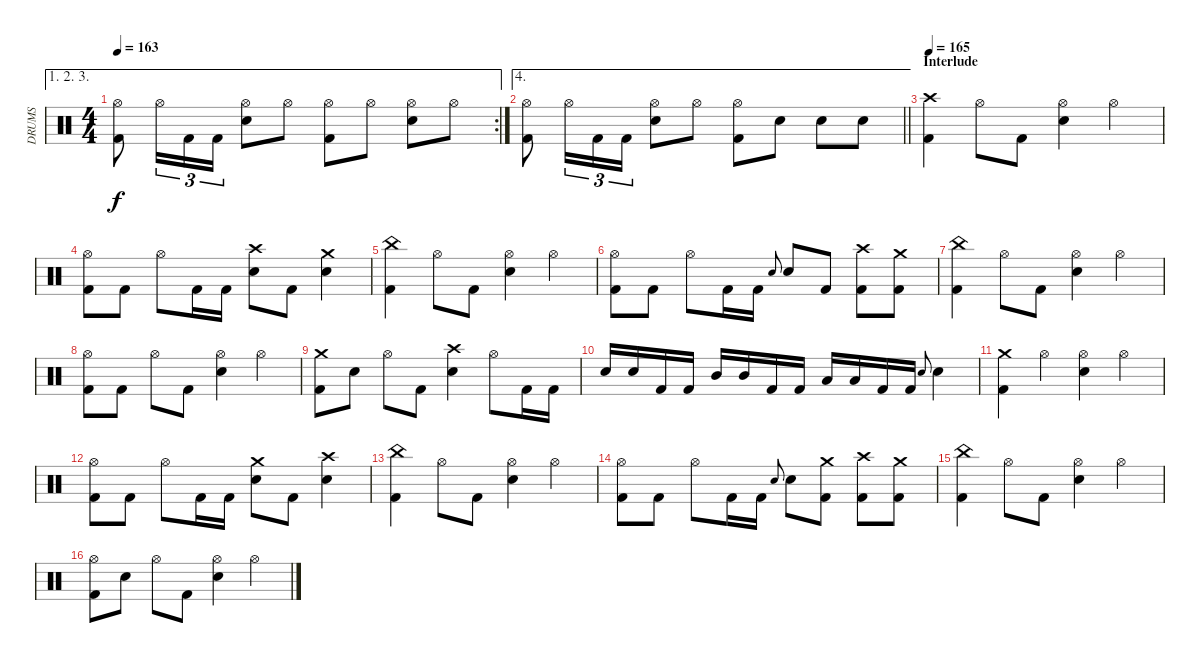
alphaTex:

\track ("DRUMS" "DRUMS") {instrument percussion}
\staff {score}
\articulation defaults
\ae (1 2 3)
\rc 2
\ts (4 4)
\tempo 163
\clef neutral
\ks c
("Hi-Hat (open)" "Kick (hit) 2").8{dy f} "Hi-Hat (open)".16{tu (3 2)} "Kick (hit) 2".16{tu (3 2)} "Kick (hit) 2".16{tu (3 2)} ("Hi-Hat (open)" "Snare (hit) 2").8 "Hi-Hat (open)".8 ("Hi-Hat (open)" "Kick (hit) 2").8 "Hi-Hat (open)".8 ("Hi-Hat (open)" "Snare (hit) 2").8 "Hi-Hat (open)".8 |
\ae 4
\barLineRight lightlight
("Hi-Hat (open)" "Kick (hit) 2").8 "Hi-Hat (open)".16{tu (3 2)} "Kick (hit) 2".16{tu (3 2)} "Kick (hit) 2".16{tu (3 2)} ("Hi-Hat (open)" "Snare (hit) 2").8 "Hi-Hat (open)".8 ("Hi-Hat (open)" "Kick (hit) 2").8 "Snare (hit) 2".8 "Snare (hit) 2".8 "Snare (hit) 2".8 |
\section ("" "Interlude")
\tempo 165
("Crash high (hit)" "Kick (hit) 2").4 "Hi-Hat (open)".8 "Kick (hit) 2".8 ("Hi-Hat (open)" "Snare (hit) 2").4 "Hi-Hat (open)".4 |
("Hi-Hat (open)" "Kick (hit) 2").8 "Kick (hit) 2".8 "Hi-Hat (open)".8 "Kick (hit) 2".16 "Kick (hit) 2".16 ("Crash high (hit)" "Snare (hit) 2").8 "Kick (hit) 2".8 ("Crash medium (hit)" "Snare (hit) 2").4 |
("China (hit)" "Kick (hit) 2").4 "Hi-Hat (open)".8 "Kick (hit) 2".8 ("Hi-Hat (open)" "Snare (hit) 2").4 "Hi-Hat (open)".4 |
("Hi-Hat (open)" "Kick (hit) 2").8 "Kick (hit) 2".8 "Hi-Hat (open)".8 "Kick (hit) 2".16 "Kick (hit) 2".16 "Snare (hit) 2".8{gr onbeat} "Snare (hit) 2".8 "Kick (hit) 2".8 ("Crash high (hit)" "Kick (hit) 2").8 ("Crash medium (hit)" "Kick (hit) 2").8 |
("China (hit)" "Kick (hit) 2").4 "Hi-Hat (open)".8 "Kick (hit) 2".8 ("Hi-Hat (open)" "Snare (hit) 2").4 "Hi-Hat (open)".4 |
("Hi-Hat (open)" "Kick (hit) 2").8 "Kick (hit) 2".8 "Hi-Hat (open)".8 "Kick (hit) 2".8 ("Hi-Hat (open)" "Snare (hit) 2").4 "Hi-Hat (open)".4 |
("Crash medium (hit)" "Kick (hit) 2").8 "Snare (hit) 2".8 "Hi-Hat (open)".8 "Kick (hit) 2".8 ("Crash high (hit)" "Snare (hit) 2").4 "Hi-Hat (open)".8 "Kick (hit) 2".16 "Kick (hit) 2".16 |
"Snare (hit) 2".16 "Snare (hit) 2".16 "Kick (hit) 2".16 "Kick (hit) 2".16 "Mid Tom (hit)".16 "Mid Tom (hit)".16 "Kick (hit) 2".16 "Kick (hit) 2".16 "Low Tom (hit)".16 "Low Tom (hit)".16 "Kick (hit) 2".16 "Kick (hit) 2".16 "Snare (hit) 2".8{gr onbeat} "Snare (hit) 2".4 |
("Crash medium (hit)" "Kick (hit) 2").4 "Hi-Hat (open)".4 ("Hi-Hat (open)" "Snare (hit) 2").4 "Hi-Hat (open)".4 |
("Hi-Hat (open)" "Kick (hit) 2").8 "Kick (hit) 2".8 "Hi-Hat (open)".8 "Kick (hit) 2".16 "Kick (hit) 2".16 ("Crash medium (hit)" "Snare (hit) 2").8 "Kick (hit) 2".8 ("Crash high (hit)" "Snare (hit) 2").4 |
("China (hit)" "Kick (hit) 2").4 "Hi-Hat (open)".8 "Kick (hit) 2".8 ("Hi-Hat (open)" "Snare (hit) 2").4 "Hi-Hat (open)".4 |
("Hi-Hat (open)" "Kick (hit) 2").8 "Kick (hit) 2".8 "Hi-Hat (open)".8 "Kick (hit) 2".16 "Kick (hit) 2".16 "Snare (hit) 2".8{gr onbeat} "Snare (hit) 2".8 ("Crash medium (hit)" "Kick (hit) 2").8 ("Crash high (hit)" "Kick (hit) 2").8 ("Crash medium (hit)" "Kick (hit) 2").8 |
("China (hit)" "Kick (hit) 2").4 "Hi-Hat (open)".8 "Kick (hit) 2".8 ("Hi-Hat (open)" "Snare (hit) 2").4 "Hi-Hat (open)".4 |
("Hi-Hat (open)" "Kick (hit) 2").8 "Snare (hit) 2".8 "Hi-Hat (open)".8 "Kick (hit) 2".8 ("Hi-Hat (open)" "Snare (hit) 2").4 "Hi-Hat (open)".4
